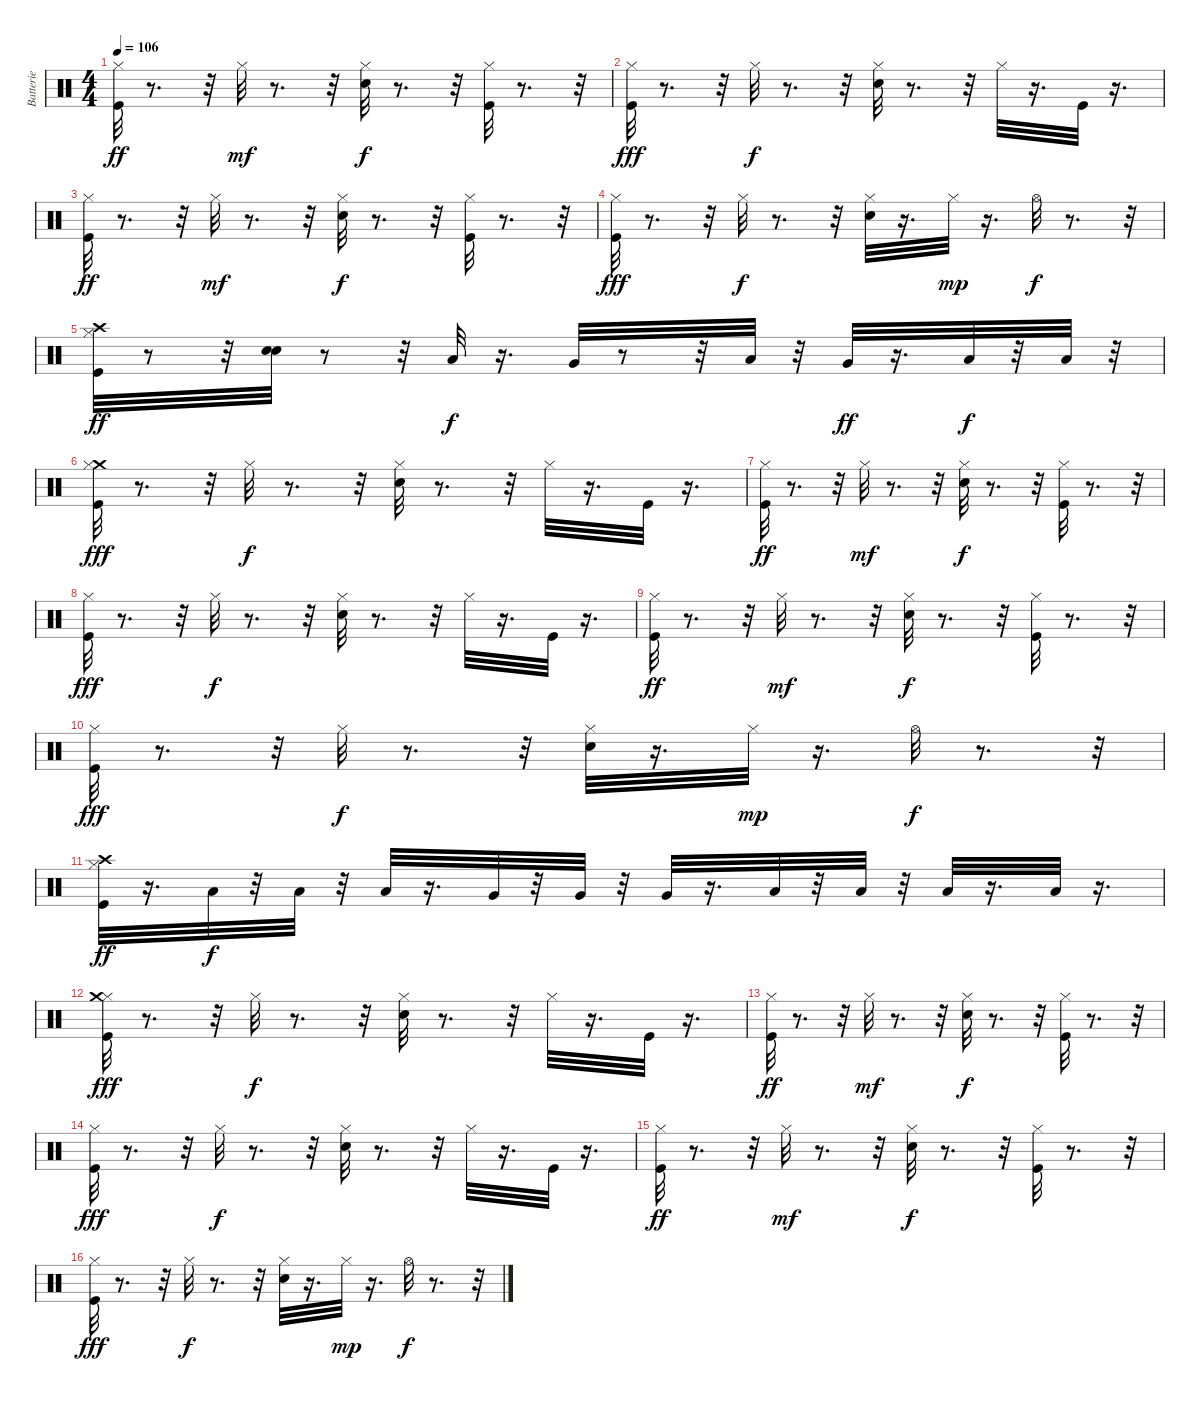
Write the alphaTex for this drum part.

\track ("Batterie" "Batterie") {instrument percussion}
\staff {score}
\articulation defaults
\ts (4 4)
\tempo 106
\clef neutral
\ks c
("Kick (hit)" "Hi-Hat (closed)").32{dy ff} r.8{d} r.32 "Hi-Hat (closed)".32{dy mf} r.8{d} r.32 ("Hi-Hat (closed)" "Snare (hit) 2").32{dy f} r.8{d} r.32 ("Kick (hit)" "Hi-Hat (closed)").32 r.8{d} r.32 |
("Hi-Hat (closed)" "Kick (hit)").32{dy fff} r.8{d} r.32 "Hi-Hat (closed)".32{dy f} r.8{d} r.32 ("Snare (hit) 2" "Hi-Hat (closed)").32 r.8{d} r.32 "Hi-Hat (closed)".32 r.16{d} "Kick (hit)".32 r.16{d} |
("Kick (hit)" "Hi-Hat (closed)").32{dy ff} r.8{d} r.32 "Hi-Hat (closed)".32{dy mf} r.8{d} r.32 ("Hi-Hat (closed)" "Snare (hit) 2").32{dy f} r.8{d} r.32 ("Kick (hit)" "Hi-Hat (closed)").32 r.8{d} r.32 |
("Hi-Hat (closed)" "Kick (hit)").32{dy fff} r.8{d} r.32 "Hi-Hat (closed)".32{dy f} r.8{d} r.32 ("Snare (hit) 2" "Hi-Hat (closed)").32 r.16{d} "Hi-Hat (closed)".32{dy mp} r.16{d} "Hi-Hat (open)".32{dy f} r.8{d} r.32 |
("Kick (hit)" "Hi-Hat (closed)" "Crash high (hit)").32{dy ff} r.8 r.32 ("Snare (hit) 2" "Snare (hit) 2").32 r.8 r.32 "Low Tom (hit)".32{dy f} r.16{d} "Very Low Tom (hit)".32 r.8 r.32 "Low Tom (hit)".32 r.32 "Very Low Tom (hit)".32{dy ff} r.16{d} "Low Floor Tom (hit)".32{dy f} r.32 "Low Floor Tom (hit)".32 r.32 |
("Crash medium (hit)" "Hi-Hat (closed)" "Kick (hit)").32{dy fff} r.8{d} r.32 "Hi-Hat (closed)".32{dy f} r.8{d} r.32 ("Snare (hit) 2" "Hi-Hat (closed)").32 r.8{d} r.32 "Hi-Hat (closed)".32 r.16{d} "Kick (hit)".32 r.16{d} |
("Kick (hit)" "Hi-Hat (closed)").32{dy ff} r.8{d} r.32 "Hi-Hat (closed)".32{dy mf} r.8{d} r.32 ("Snare (hit) 2" "Hi-Hat (closed)").32{dy f} r.8{d} r.32 ("Kick (hit)" "Hi-Hat (closed)").32 r.8{d} r.32 |
("Hi-Hat (closed)" "Kick (hit)").32{dy fff} r.8{d} r.32 "Hi-Hat (closed)".32{dy f} r.8{d} r.32 ("Snare (hit) 2" "Hi-Hat (closed)").32 r.8{d} r.32 "Hi-Hat (closed)".32 r.16{d} "Kick (hit)".32 r.16{d} |
("Kick (hit)" "Hi-Hat (closed)").32{dy ff} r.8{d} r.32 "Hi-Hat (closed)".32{dy mf} r.8{d} r.32 ("Hi-Hat (closed)" "Snare (hit) 2").32{dy f} r.8{d} r.32 ("Kick (hit)" "Hi-Hat (closed)").32 r.8{d} r.32 |
("Hi-Hat (closed)" "Kick (hit)").32{dy fff} r.8{d} r.32 "Hi-Hat (closed)".32{dy f} r.8{d} r.32 ("Snare (hit) 2" "Hi-Hat (closed)").32 r.16{d} "Hi-Hat (closed)".32{dy mp} r.16{d} "Hi-Hat (open)".32{dy f} r.8{d} r.32 |
("Kick (hit)" "Hi-Hat (closed)" "Crash high (hit)").32{dy ff} r.16{d} "Low Tom (hit)".32{dy f} r.32 "Low Tom (hit)".32 r.32 "Low Tom (hit)".32 r.16{d} "Very Low Tom (hit)".32 r.32 "Very Low Tom (hit)".32 r.32 "Very Low Tom (hit)".32 r.16{d} "Low Floor Tom (hit)".32 r.32 "Low Floor Tom (hit)".32 r.32 "Low Floor Tom (hit)".32 r.16{d} "Low Floor Tom (hit)".32 r.16{d} |
("Hi-Hat (closed)" "Crash medium (hit)" "Kick (hit)").32{dy fff} r.8{d} r.32 "Hi-Hat (closed)".32{dy f} r.8{d} r.32 ("Snare (hit) 2" "Hi-Hat (closed)").32 r.8{d} r.32 "Hi-Hat (closed)".32 r.16{d} "Kick (hit)".32 r.16{d} |
("Kick (hit)" "Hi-Hat (closed)").32{dy ff} r.8{d} r.32 "Hi-Hat (closed)".32{dy mf} r.8{d} r.32 ("Hi-Hat (closed)" "Snare (hit) 2").32{dy f} r.8{d} r.32 ("Kick (hit)" "Hi-Hat (closed)").32 r.8{d} r.32 |
("Hi-Hat (closed)" "Kick (hit)").32{dy fff} r.8{d} r.32 "Hi-Hat (closed)".32{dy f} r.8{d} r.32 ("Snare (hit) 2" "Hi-Hat (closed)").32 r.8{d} r.32 "Hi-Hat (closed)".32 r.16{d} "Kick (hit)".32 r.16{d} |
("Kick (hit)" "Hi-Hat (closed)").32{dy ff} r.8{d} r.32 "Hi-Hat (closed)".32{dy mf} r.8{d} r.32 ("Snare (hit) 2" "Hi-Hat (closed)").32{dy f} r.8{d} r.32 ("Kick (hit)" "Hi-Hat (closed)").32 r.8{d} r.32 |
("Hi-Hat (closed)" "Kick (hit)").32{dy fff} r.8{d} r.32 "Hi-Hat (closed)".32{dy f} r.8{d} r.32 ("Snare (hit) 2" "Hi-Hat (closed)").32 r.16{d} "Hi-Hat (closed)".32{dy mp} r.16{d} "Hi-Hat (open)".32{dy f} r.8{d} r.32
